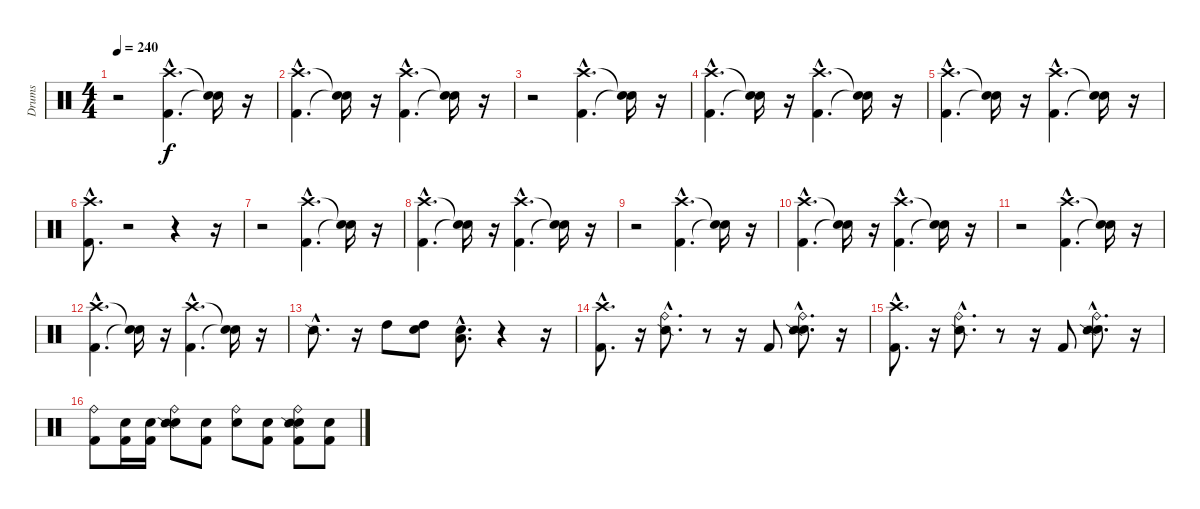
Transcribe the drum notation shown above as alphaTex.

\track ("Drums" "Drums") {instrument percussion}
\staff {score}
\articulation defaults
\ts (4 4)
\tempo 240
\clef neutral
\ks c
r.2{dy f} ("Kick (hit) 2"{hac} "Crash high (hit)"{hac}).4{d} ("Snare (hit)"{t} "Snare (hit)"{t}).16 r.16 |
("Kick (hit) 2"{hac} "Crash high (hit)"{hac}).4{d} ("Snare (hit)"{t} "Snare (hit)"{t}).16 r.16 ("Kick (hit) 2"{hac} "Crash high (hit)"{hac}).4{d} ("Snare (hit)"{t} "Snare (hit)"{t}).16 r.16 |
r.2 ("Kick (hit) 2"{hac} "Crash high (hit)"{hac}).4{d} ("Snare (hit)"{t} "Snare (hit)"{t}).16 r.16 |
("Kick (hit) 2"{hac} "Crash high (hit)"{hac}).4{d} ("Snare (hit)"{t} "Snare (hit)"{t}).16 r.16 ("Kick (hit) 2"{hac} "Crash high (hit)"{hac}).4{d} ("Snare (hit)"{t} "Snare (hit)"{t}).16 r.16 |
("Kick (hit) 2"{hac} "Crash high (hit)"{hac}).4{d} ("Snare (hit)"{t} "Snare (hit)"{t}).16 r.16 ("Kick (hit) 2"{hac} "Crash high (hit)"{hac}).4{d} ("Snare (hit)"{t} "Snare (hit)"{t}).16 r.16 |
("Kick (hit) 2"{hac} "Crash high (hit)"{hac}).8{d} r.2 r.4 r.16 |
r.2 ("Kick (hit) 2"{hac} "Crash high (hit)"{hac}).4{d} ("Snare (hit)"{t} "Snare (hit)"{t}).16 r.16 |
("Kick (hit) 2"{hac} "Crash high (hit)"{hac}).4{d} ("Snare (hit)"{t} "Snare (hit)"{t}).16 r.16 ("Kick (hit) 2"{hac} "Crash high (hit)"{hac}).4{d} ("Snare (hit)"{t} "Snare (hit)"{t}).16 r.16 |
r.2 ("Kick (hit) 2"{hac} "Crash high (hit)"{hac}).4{d} ("Snare (hit)"{t} "Snare (hit)"{t}).16 r.16 |
("Kick (hit) 2"{hac} "Crash high (hit)"{hac}).4{d} ("Snare (hit)"{t} "Snare (hit)"{t}).16 r.16 ("Kick (hit) 2"{hac} "Crash high (hit)"{hac}).4{d} ("Snare (hit)"{t} "Snare (hit)"{t}).16 r.16 |
r.2 ("Kick (hit) 2"{hac} "Crash high (hit)"{hac}).4{d} ("Snare (hit)"{t} "Snare (hit)"{t}).16 r.16 |
("Kick (hit) 2"{hac} "Crash high (hit)"{hac}).4{d} ("Snare (hit)"{t} "Snare (hit)"{t}).16 r.16 ("Kick (hit) 2"{hac} "Crash high (hit)"{hac}).4{d} ("Snare (hit)"{t} "Snare (hit)"{t}).16 r.16 |
"Snare (side stick) 2"{hac}.8{d} r.16 "High Tom (hit)".8 ("Snare (hit)" "High Tom (hit)").8 ("Snare (hit)"{hac} "Low Tom (hit)"{hac}).8{d} r.4 r.16 |
("Kick (hit) 2"{hac} "Crash high (hit)"{hac}).8{d} r.16 ("Snare (side stick) 2"{hac} "Ride (bell)"{hac}).8{d} r.8 r.16 "Kick (hit) 2".8 ("Snare (hit)"{hac} "Snare (side stick) 2"{hac} "Ride (bell)"{hac}).8{d} r.16 |
("Kick (hit) 2"{hac} "Crash high (hit)"{hac}).8{d} r.16 ("Snare (side stick) 2"{hac} "Ride (bell)"{hac}).8{d} r.8 r.16 "Kick (hit) 2".8 ("Snare (hit)"{hac} "Snare (side stick) 2"{hac} "Ride (bell)"{hac}).8{d} r.16 |
("Kick (hit) 2" "Ride (bell)").8 ("Snare (hit)" "Kick (hit) 2").16 ("Snare (hit)" "Kick (hit) 2").16 ("Snare (hit)" "Ride (bell)" "Snare (side stick) 2").8 ("Snare (hit)" "Kick (hit) 2").8 ("Snare (hit)" "Ride (bell)").8 ("Snare (hit)" "Kick (hit) 2").8 ("Snare (hit)" "Kick (hit) 2" "Ride (bell)" "Snare (side stick) 2").8 ("Snare (hit)" "Kick (hit) 2").8
